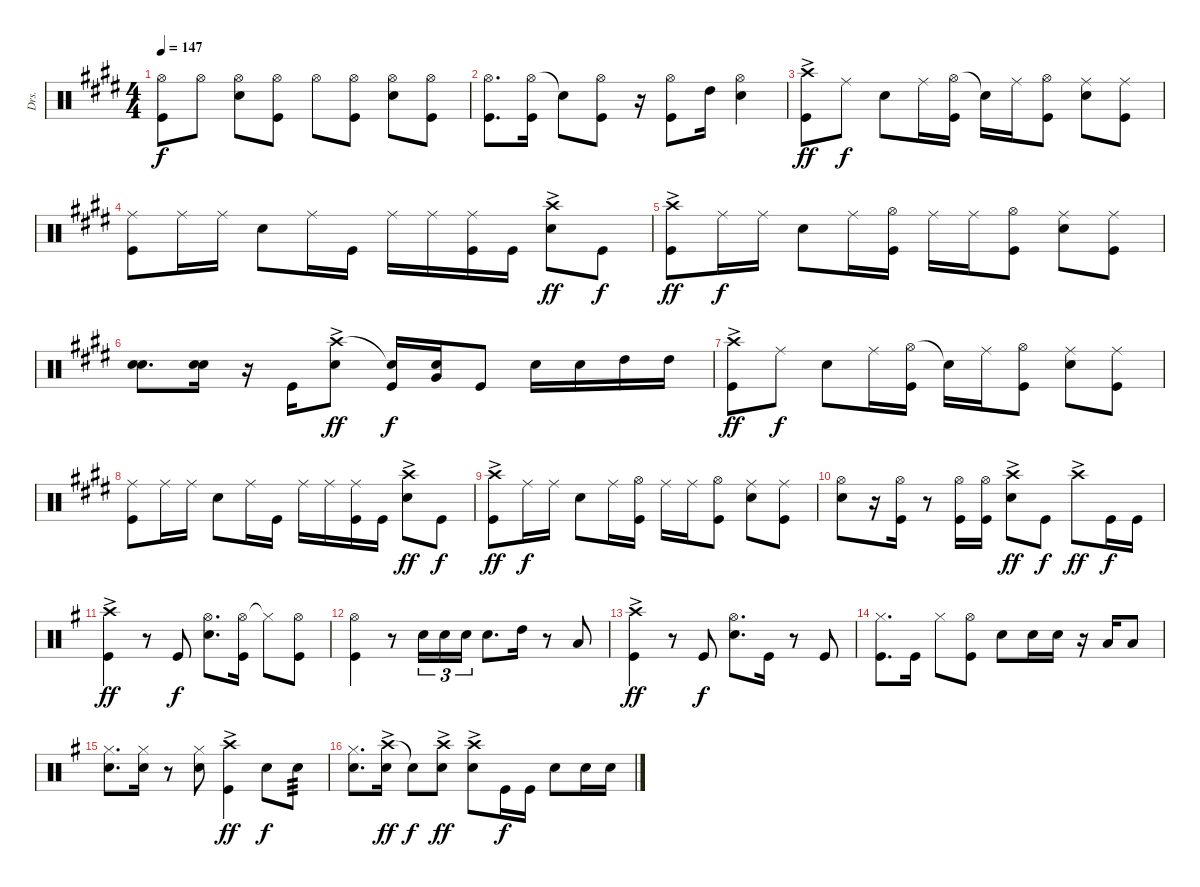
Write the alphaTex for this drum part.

\track ("Drs." "Drs.") {instrument percussion}
\staff {score}
\articulation defaults
\ts (4 4)
\tempo 147
\clef neutral
\ks e
("Hi-Hat (open)" "Kick (hit)").8{dy f} "Hi-Hat (open)".8 ("Hi-Hat (open)" "Snare (hit) 2").8 ("Hi-Hat (open)" "Kick (hit)").8 "Hi-Hat (open)".8 ("Hi-Hat (open)" "Kick (hit)").8 ("Hi-Hat (open)" "Snare (hit) 2").8 ("Hi-Hat (open)" "Kick (hit)").8 |
("Hi-Hat (open)" "Kick (hit)").8{d} ("Hi-Hat (open)" "Kick (hit)").16 "Snare (hit)"{t}.8 ("Hi-Hat (open)" "Kick (hit)").8 r.16 ("Hi-Hat (open)" "Kick (hit)").8 "High Tom (hit)".16 ("Hi-Hat (open)" "Snare (hit) 2").4 |
("Crash high (hit)"{ac} "Kick (hit)").8{dy ff} "Ride (middle)".8{dy f} "Snare (hit) 2".8 "Ride (middle)".16 ("Hi-Hat (open)" "Kick (hit)").16 "Snare (hit)"{t}.16 "Ride (middle)".16 ("Hi-Hat (open)" "Kick (hit)").8 ("Ride (middle)" "Snare (hit) 2").8 ("Ride (middle)" "Kick (hit)").8 |
("Ride (middle)" "Kick (hit)").8 "Ride (middle)".16 "Ride (middle)".16 "Snare (hit) 2".8 "Ride (middle)".16 "Kick (hit)".16 "Ride (middle)".16 "Ride (middle)".16 ("Ride (middle)" "Kick (hit)").16 "Kick (hit)".16 ("Crash high (hit)"{ac} "Snare (hit) 2").8{dy ff} "Kick (hit)".8{dy f} |
("Crash high (hit)"{ac} "Kick (hit)").8{dy ff} "Ride (middle)".16{dy f} "Ride (middle)".16 "Snare (hit) 2".8 "Ride (middle)".16 ("Hi-Hat (open)" "Kick (hit)").16 "Ride (middle)".16 "Ride (middle)".16 ("Hi-Hat (open)" "Kick (hit)").8 ("Ride (middle)" "Snare (hit) 2").8 ("Ride (middle)" "Kick (hit)").8 |
("Snare (hit) 2" "Snare (hit) 2").8{d} ("Snare (hit) 2" "Snare (hit) 2").16 r.16 "Kick (hit)".16 ("Crash high (hit)"{ac} "Snare (hit) 2").8{dy ff} ("Snare (hit)"{t} "Kick (hit)").16{dy f} ("Snare (hit) 2" "Very Low Tom (hit)").16 "Kick (hit)".8 "Snare (hit) 2".16 "Snare (hit) 2".16 "High Tom (hit)".16 "High Tom (hit)".16 |
("Crash high (hit)"{ac} "Kick (hit)").8{dy ff} "Ride (middle)".8{dy f} "Snare (hit) 2".8 "Ride (middle)".16 ("Hi-Hat (open)" "Kick (hit)").16 "Snare (hit)"{t}.16 "Ride (middle)".16 ("Hi-Hat (open)" "Kick (hit)").8 ("Ride (middle)" "Snare (hit) 2").8 ("Ride (middle)" "Kick (hit)").8 |
("Ride (middle)" "Kick (hit)").8 "Ride (middle)".16 "Ride (middle)".16 "Snare (hit) 2".8 "Ride (middle)".16 "Kick (hit)".16 "Ride (middle)".16 "Ride (middle)".16 ("Ride (middle)" "Kick (hit)").16 "Kick (hit)".16 ("Crash high (hit)"{ac} "Snare (hit) 2").8{dy ff} "Kick (hit)".8{dy f} |
("Crash high (hit)"{ac} "Kick (hit)").8{dy ff} "Ride (middle)".16{dy f} "Ride (middle)".16 "Snare (hit) 2".8 "Ride (middle)".16 ("Hi-Hat (open)" "Kick (hit)").16 "Ride (middle)".16 "Ride (middle)".16 ("Hi-Hat (open)" "Kick (hit)").8 ("Ride (middle)" "Snare (hit) 2").8 ("Ride (middle)" "Kick (hit)").8 |
("Hi-Hat (open)" "Snare (hit) 2").8 r.16 ("Hi-Hat (open)" "Kick (hit)").16 r.8 ("Hi-Hat (open)" "Kick (hit)").16 ("Hi-Hat (open)" "Kick (hit)").16 ("Crash high (hit)"{ac} "Snare (hit) 2").8{dy ff} "Kick (hit)".8{dy f} "Crash high (hit)"{ac}.8{dy ff} "Kick (hit)".16{dy f} "Kick (hit)".16 |
\ks g
("Crash high (hit)"{ac} "Kick (hit)").4{dy ff} r.8 "Kick (hit)".8{dy f} ("Hi-Hat (open)" "Snare (hit) 2").8{d} ("Hi-Hat (open)" "Kick (hit)").16 "Hi-Hat (closed)"{t}.8 ("Hi-Hat (open)" "Kick (hit)").8 |
("Hi-Hat (open)" "Kick (hit)").4 r.8 "Snare (hit) 2".16{tu (3 2)} "Snare (hit) 2".16{tu (3 2)} "Snare (hit) 2".16{tu (3 2)} "Snare (hit) 2".8{d} "High Tom (hit)".16 r.8 "Low Tom (hit)".8 |
("Crash high (hit)"{ac} "Kick (hit)").4{dy ff} r.8 "Kick (hit)".8{dy f} ("Hi-Hat (open)" "Snare (hit) 2").8{d} "Kick (hit)".16 r.8 "Kick (hit)".8 |
("Hi-Hat (closed)" "Kick (hit)").8{d} "Kick (hit)".16 "Hi-Hat (closed)".8 ("Hi-Hat (open)" "Kick (hit)").8 "Snare (hit) 2".8 "Snare (hit) 2".16 "Snare (hit) 2".16 r.16 "Low Tom (hit)".16 "Low Tom (hit)".8 |
("Hi-Hat (closed)" "Snare (hit) 2").8{d} ("Hi-Hat (closed)" "Snare (hit) 2").16 r.8 ("Hi-Hat (closed)" "Snare (hit) 2").8 ("Crash high (hit)"{ac} "Kick (hit)").4{dy ff} "Snare (hit) 2".8{dy f} "Snare (hit) 2".8{tp 3} |
("Hi-Hat (closed)" "Snare (hit) 2").8{d} ("Crash high (hit)"{ac} "Snare (hit) 2").16{dy ff} "Snare (hit)"{t}.8{dy f} ("Crash high (hit)"{ac} "Snare (hit) 2").8{dy ff} ("Crash high (hit)"{ac} "Snare (hit) 2").8 "Kick (hit)".16{dy f} "Kick (hit)".16 "Snare (hit) 2".8 "Snare (hit) 2".16 "Snare (hit) 2".16
